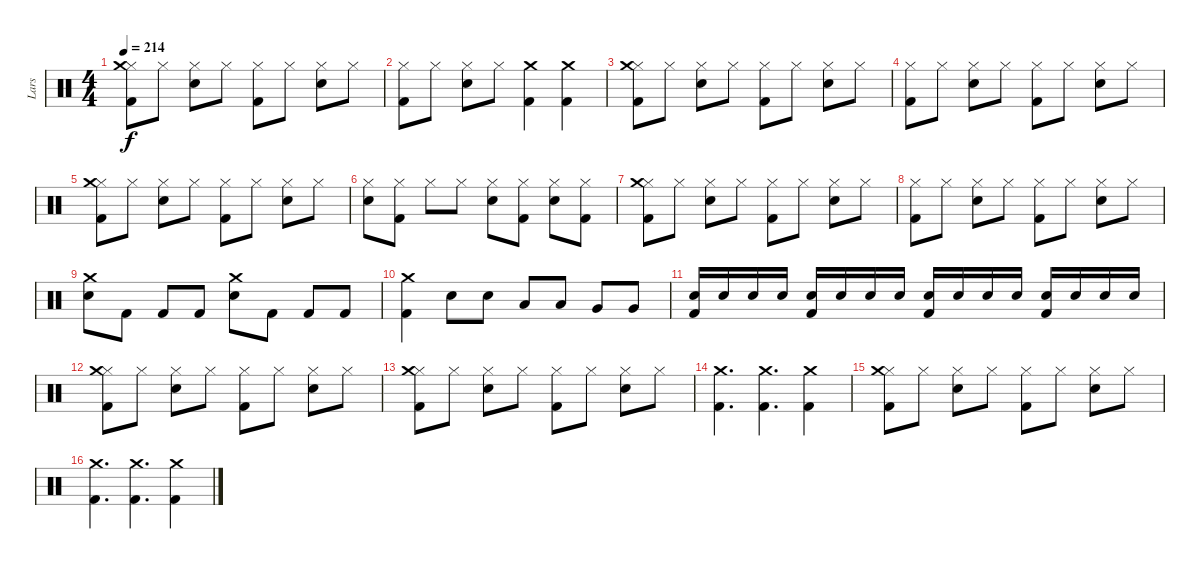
\track ("Lars" "Lars") {instrument percussion}
\staff {score}
\articulation defaults
\ts (4 4)
\tempo 214
\clef neutral
\ks c
("Hi-Hat (closed)" "Kick (hit) 2" "Crash medium (hit)").8{dy f} "Hi-Hat (closed)".8 ("Hi-Hat (closed)" "Snare (hit) 2").8 "Hi-Hat (closed)".8 ("Hi-Hat (closed)" "Kick (hit) 2").8 "Hi-Hat (closed)".8 ("Hi-Hat (closed)" "Snare (hit) 2").8 "Hi-Hat (closed)".8 |
("Hi-Hat (closed)" "Kick (hit) 2").8 "Hi-Hat (closed)".8 ("Hi-Hat (closed)" "Snare (hit) 2").8 "Hi-Hat (closed)".8 ("Kick (hit) 2" "Crash medium (hit)").4 ("Kick (hit) 2" "Crash medium (hit)").4 |
("Hi-Hat (closed)" "Kick (hit) 2" "Crash medium (hit)").8 "Hi-Hat (closed)".8 ("Hi-Hat (closed)" "Snare (hit) 2").8 "Hi-Hat (closed)".8 ("Hi-Hat (closed)" "Kick (hit) 2").8 "Hi-Hat (closed)".8 ("Hi-Hat (closed)" "Snare (hit) 2").8 "Hi-Hat (closed)".8 |
("Hi-Hat (closed)" "Kick (hit) 2").8 "Hi-Hat (closed)".8 ("Hi-Hat (closed)" "Snare (hit) 2").8 "Hi-Hat (closed)".8 ("Hi-Hat (closed)" "Kick (hit) 2").8 "Hi-Hat (closed)".8 ("Hi-Hat (closed)" "Snare (hit) 2").8 "Hi-Hat (closed)".8 |
("Hi-Hat (closed)" "Kick (hit) 2" "Crash medium (hit)").8 "Hi-Hat (closed)".8 ("Hi-Hat (closed)" "Snare (hit) 2").8 "Hi-Hat (closed)".8 ("Hi-Hat (closed)" "Kick (hit) 2").8 "Hi-Hat (closed)".8 ("Hi-Hat (closed)" "Snare (hit) 2").8 "Hi-Hat (closed)".8 |
("Hi-Hat (closed)" "Snare (hit) 2").8 ("Hi-Hat (closed)" "Kick (hit) 2").8 "Hi-Hat (closed)".8 "Hi-Hat (closed)".8 ("Hi-Hat (closed)" "Snare (hit) 2").8 ("Hi-Hat (closed)" "Kick (hit) 2").8 ("Hi-Hat (closed)" "Snare (hit) 2").8 ("Hi-Hat (closed)" "Kick (hit) 2").8 |
("Hi-Hat (closed)" "Kick (hit) 2" "Crash medium (hit)").8 "Hi-Hat (closed)".8 ("Hi-Hat (closed)" "Snare (hit) 2").8 "Hi-Hat (closed)".8 ("Hi-Hat (closed)" "Kick (hit) 2").8 "Hi-Hat (closed)".8 ("Hi-Hat (closed)" "Snare (hit) 2").8 "Hi-Hat (closed)".8 |
("Hi-Hat (closed)" "Kick (hit) 2").8 "Hi-Hat (closed)".8 ("Hi-Hat (closed)" "Snare (hit) 2").8 "Hi-Hat (closed)".8 ("Hi-Hat (closed)" "Kick (hit) 2").8 "Hi-Hat (closed)".8 ("Hi-Hat (closed)" "Snare (hit) 2").8 "Hi-Hat (closed)".8 |
("Snare (hit) 2" "Crash medium (hit)").8 "Kick (hit) 2".8 "Kick (hit) 2".8 "Kick (hit) 2".8 ("Snare (hit) 2" "Crash medium (hit)").8 "Kick (hit) 2".8 "Kick (hit) 2".8 "Kick (hit) 2".8 |
("Kick (hit) 2" "Crash medium (hit)").4 "Snare (hit) 2".8 "Snare (hit) 2".8 "Low Tom (hit)".8 "Low Tom (hit)".8 "Very Low Tom (hit)".8 "Very Low Tom (hit)".8 |
("Snare (hit) 2" "Kick (hit) 2").16{volume 7} "Snare (hit) 2".16 "Snare (hit) 2".16 "Snare (hit) 2".16 ("Snare (hit) 2" "Kick (hit) 2").16{volume 9} "Snare (hit) 2".16 "Snare (hit) 2".16 "Snare (hit) 2".16 ("Snare (hit) 2" "Kick (hit) 2").16{volume 11} "Snare (hit) 2".16 "Snare (hit) 2".16 "Snare (hit) 2".16 ("Snare (hit) 2" "Kick (hit) 2").16{volume 13} "Snare (hit) 2".16 "Snare (hit) 2".16 "Snare (hit) 2".16 |
("Hi-Hat (closed)" "Kick (hit) 2" "Crash medium (hit)").8 "Hi-Hat (closed)".8 ("Hi-Hat (closed)" "Snare (hit) 2").8 "Hi-Hat (closed)".8 ("Hi-Hat (closed)" "Kick (hit) 2").8 "Hi-Hat (closed)".8 ("Hi-Hat (closed)" "Snare (hit) 2").8 "Hi-Hat (closed)".8 |
("Hi-Hat (closed)" "Kick (hit) 2" "Crash medium (hit)").8 "Hi-Hat (closed)".8 ("Hi-Hat (closed)" "Snare (hit) 2").8 "Hi-Hat (closed)".8 ("Hi-Hat (closed)" "Kick (hit) 2").8 "Hi-Hat (closed)".8 ("Hi-Hat (closed)" "Snare (hit) 2").8 "Hi-Hat (closed)".8 |
("Kick (hit) 2" "Crash medium (hit)").4{d} ("Crash medium (hit)" "Kick (hit) 2").4{d} ("Kick (hit) 2" "Crash medium (hit)").4 |
("Hi-Hat (closed)" "Kick (hit) 2" "Crash medium (hit)").8 "Hi-Hat (closed)".8 ("Hi-Hat (closed)" "Snare (hit) 2").8 "Hi-Hat (closed)".8 ("Hi-Hat (closed)" "Kick (hit) 2").8 "Hi-Hat (closed)".8 ("Hi-Hat (closed)" "Snare (hit) 2").8 "Hi-Hat (closed)".8 |
("Kick (hit) 2" "Crash medium (hit)").4{d} ("Crash medium (hit)" "Kick (hit) 2").4{d} ("Kick (hit) 2" "Crash medium (hit)").4
